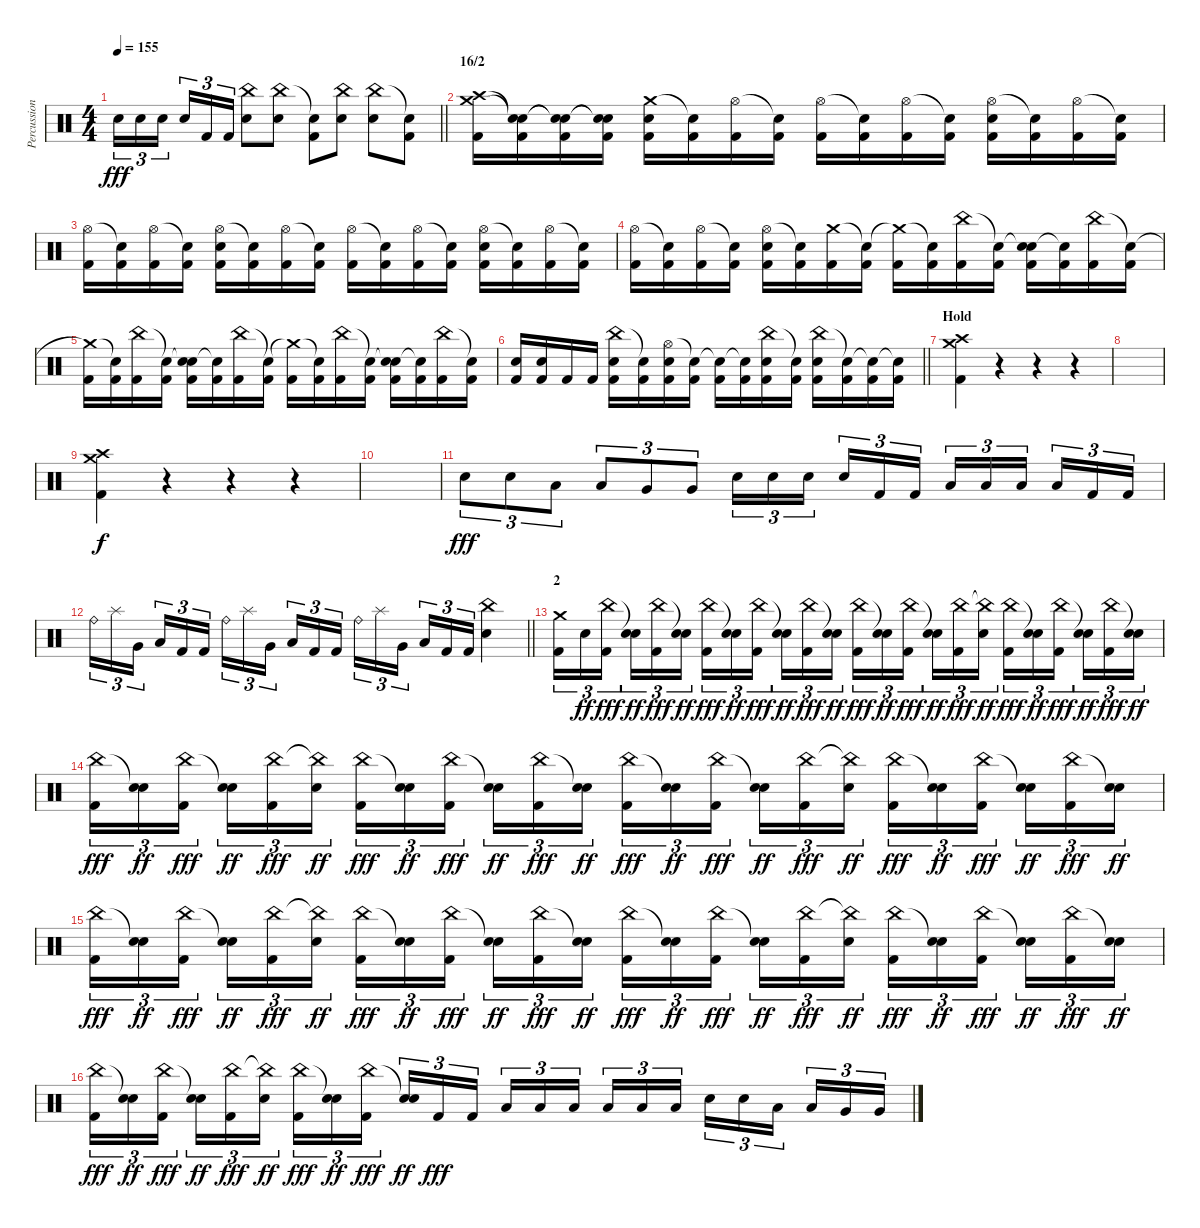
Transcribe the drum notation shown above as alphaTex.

\track ("Percussion" "Percussion") {instrument percussion}
\staff {score}
\articulation defaults
\ts (4 4)
\tempo 155
\clef neutral
\barLineRight lightlight
\ks c "Electric Snare (hit)".16{tu (3 2) dy fff} "Electric Snare (hit)".16{tu (3 2)} "Electric Snare (hit)".16{tu (3 2) beam splitsecondary} "Electric Snare (hit)".16{tu (3 2)} "Kick (hit) 2".16{tu (3 2)} "Kick (hit) 2".16{tu (3 2)}
("China (hit)" "Electric Snare (hit)").8 ("China (hit)" "Electric Snare (hit)").8 ("Snare (hit)"{t} "Kick (hit) 2").8 ("China (hit)" "Electric Snare (hit)").8 ("China (hit)" "Electric Snare (hit)").8 ("Snare (hit)"{t} "Kick (hit) 2").8 |
\section ("" "16/2")
("Crash medium (hit)" "Crash high (hit)" "Kick (hit) 2").16 ("Snare (hit)"{t} "Snare (hit)"{t} "Kick (hit) 2").16 ("Snare (hit)"{t} "Snare (hit)"{t} "Kick (hit) 2").16 ("Snare (hit)"{t} "Snare (hit)"{t} "Kick (hit) 2").16 ("Crash medium (hit)" "Electric Snare (hit)" "Kick (hit) 2").16 ("Snare (hit)"{t} "Kick (hit) 2").16 ("Hi-Hat (open)" "Kick (hit) 2").16 ("Snare (hit)"{t} "Kick (hit) 2").16 ("Hi-Hat (open)" "Kick (hit) 2").16 ("Snare (hit)"{t} "Kick (hit) 2").16 ("Hi-Hat (open)" "Kick (hit) 2").16 ("Snare (hit)"{t} "Kick (hit) 2").16 ("Hi-Hat (open)" "Electric Snare (hit)" "Kick (hit) 2").16 ("Snare (hit)"{t} "Kick (hit) 2").16 ("Hi-Hat (open)" "Kick (hit) 2").16 ("Snare (hit)"{t} "Kick (hit) 2").16 |
("Hi-Hat (open)" "Kick (hit) 2").16 ("Snare (hit)"{t} "Kick (hit) 2").16 ("Hi-Hat (open)" "Kick (hit) 2").16 ("Snare (hit)"{t} "Kick (hit) 2").16 ("Hi-Hat (open)" "Electric Snare (hit)" "Kick (hit) 2").16 ("Snare (hit)"{t} "Kick (hit) 2").16 ("Hi-Hat (open)" "Kick (hit) 2").16 ("Snare (hit)"{t} "Kick (hit) 2").16 ("Hi-Hat (open)" "Kick (hit) 2").16 ("Snare (hit)"{t} "Kick (hit) 2").16 ("Hi-Hat (open)" "Kick (hit) 2").16 ("Snare (hit)"{t} "Kick (hit) 2").16 ("Hi-Hat (open)" "Electric Snare (hit)" "Kick (hit) 2").16 ("Snare (hit)"{t} "Kick (hit) 2").16 ("Hi-Hat (open)" "Kick (hit) 2").16 ("Snare (hit)"{t} "Kick (hit) 2").16 |
("Hi-Hat (open)" "Kick (hit) 2").16 ("Snare (hit)"{t} "Kick (hit) 2").16 ("Hi-Hat (open)" "Kick (hit) 2").16 ("Snare (hit)"{t} "Kick (hit) 2").16 ("Hi-Hat (open)" "Electric Snare (hit)" "Kick (hit) 2").16 ("Snare (hit)"{t} "Kick (hit) 2").16 ("Crash medium (hit)" "Kick (hit) 2").16 ("Snare (hit)"{t} "Kick (hit) 2").16 ("Crash medium (hit)"{t} "Kick (hit) 2").16 ("Snare (hit)"{t} "Kick (hit) 2").16 ("China (hit)" "Kick (hit) 2").16 ("Snare (hit)"{t} "Kick (hit) 2").16 ("Snare (hit)"{t} "Electric Snare (hit)" "Kick (hit) 2").16 ("Snare (hit)"{t} "Kick (hit) 2").16 ("China (hit)" "Kick (hit) 2").16 ("Snare (hit)"{t} "Kick (hit) 2").16 |
("Crash medium (hit)"{t} "Kick (hit) 2").16 ("Snare (hit)"{t} "Kick (hit) 2").16 ("China (hit)" "Kick (hit) 2").16 ("Snare (hit)"{t} "Kick (hit) 2").16 ("Snare (hit)"{t} "Electric Snare (hit)" "Kick (hit) 2").16 ("Snare (hit)"{t} "Kick (hit) 2").16 ("China (hit)" "Kick (hit) 2").16 ("Snare (hit)"{t} "Kick (hit) 2").16 ("Crash medium (hit)"{t} "Kick (hit) 2").16 ("Snare (hit)"{t} "Kick (hit) 2").16 ("China (hit)" "Kick (hit) 2").16 ("Snare (hit)"{t} "Kick (hit) 2").16 ("Snare (hit)"{t} "Electric Snare (hit)" "Kick (hit) 2").16 ("Snare (hit)"{t} "Kick (hit) 2").16 ("China (hit)" "Kick (hit) 2").16 ("Snare (hit)"{t} "Kick (hit) 2").16 |
\barLineRight lightlight
("Electric Snare (hit)" "Kick (hit) 2").16 ("Electric Snare (hit)" "Kick (hit) 2").16 "Kick (hit) 2".16 "Kick (hit) 2".16 ("China (hit)" "Electric Snare (hit)" "Kick (hit) 2").16 ("Snare (hit)"{t} "Kick (hit) 2").16 ("Hi-Hat (open)" "Electric Snare (hit)" "Kick (hit) 2").16 ("Snare (hit)"{t} "Kick (hit) 2").16 ("Snare (hit)"{t} "Kick (hit) 2").16 ("Snare (hit)"{t} "Kick (hit) 2").16 ("China (hit)" "Electric Snare (hit)" "Kick (hit) 2").16 ("Snare (hit)"{t} "Kick (hit) 2").16 ("China (hit)" "Electric Snare (hit)" "Kick (hit) 2").16 ("Snare (hit)"{t} "Kick (hit) 2").16 ("Snare (hit)"{t} "Kick (hit) 2").16 ("Snare (hit)"{t} "Kick (hit) 2").16 |
\section ("" "Hold")
("Crash medium (hit)" "Crash high (hit)" "Kick (hit) 2").4 r.4 r.4 r.4 |
|
("Crash medium (hit)" "Crash high (hit)" "Kick (hit) 2").4{dy f} r.4 r.4 r.4 |
|
"Electric Snare (hit)".8{tu (3 2) dy fff} "Electric Snare (hit)".8{tu (3 2)} "Low Tom (hit)".8{tu (3 2)} "Low Tom (hit)".8{tu (3 2)} "Very Low Tom (hit)".8{tu (3 2)} "Very Low Tom (hit)".8{tu (3 2)} "Electric Snare (hit)".16{tu (3 2)} "Electric Snare (hit)".16{tu (3 2)} "Electric Snare (hit)".16{tu (3 2) beam splitsecondary} "Electric Snare (hit)".16{tu (3 2)} "Kick (hit) 2".16{tu (3 2)} "Kick (hit) 2".16{tu (3 2)} "Low Tom (hit)".16{tu (3 2)} "Low Tom (hit)".16{tu (3 2)} "Low Tom (hit)".16{tu (3 2) beam splitsecondary} "Low Tom (hit)".16{tu (3 2)} "Kick (hit) 2".16{tu (3 2)} "Kick (hit) 2".16{tu (3 2)} |
\barLineRight lightlight "Ride (bell)".16{tu (3 2)} "Splash (hit)".16{tu (3 2)} "Very Low Tom (hit)".16{tu (3 2) beam splitsecondary} "Low Tom (hit)".16{tu (3 2)} "Kick (hit) 2".16{tu (3 2)} "Kick (hit) 2".16{tu (3 2)} "Ride (bell)".16{tu (3 2)} "Splash (hit)".16{tu (3 2)} "Very Low Tom (hit)".16{tu (3 2) beam splitsecondary} "Low Tom (hit)".16{tu (3 2)} "Kick (hit) 2".16{tu (3 2)} "Kick (hit) 2".16{tu (3 2)} "Ride (bell)".16{tu (3 2)} "Splash (hit)".16{tu (3 2)} "Very Low Tom (hit)".16{tu (3 2) beam splitsecondary} "Low Tom (hit)".16{tu (3 2)} "Kick (hit) 2".16{tu (3 2)} "Kick (hit) 2".16{tu (3 2)}
("China (hit)" "Electric Snare (hit)").4 |
\section ("" "2")
("Crash medium (hit)" "Kick (hit) 2").16{tu (3 2)} "Electric Snare (hit)".16{tu (3 2) dy ff} ("China (hit)" "Kick (hit) 2").16{tu (3 2) dy fff beam splitsecondary} ("Snare (hit)"{t} "Electric Snare (hit)").16{tu (3 2) dy ff} ("China (hit)" "Kick (hit) 2").16{tu (3 2) dy fff} ("Snare (hit)"{t} "Electric Snare (hit)").16{tu (3 2) dy ff} ("China (hit)" "Kick (hit) 2").16{tu (3 2) dy fff} ("Snare (hit)"{t} "Electric Snare (hit)").16{tu (3 2) dy ff} ("China (hit)" "Kick (hit) 2").16{tu (3 2) dy fff beam splitsecondary} ("Snare (hit)"{t} "Electric Snare (hit)").16{tu (3 2) dy ff} ("China (hit)" "Kick (hit) 2").16{tu (3 2) dy fff} ("Snare (hit)"{t} "Electric Snare (hit)").16{tu (3 2) dy ff} ("China (hit)" "Kick (hit) 2").16{tu (3 2) dy fff} ("Snare (hit)"{t} "Electric Snare (hit)").16{tu (3 2) dy ff} ("China (hit)" "Kick (hit) 2").16{tu (3 2) dy fff beam splitsecondary} ("Snare (hit)"{t} "Electric Snare (hit)").16{tu (3 2) dy ff} ("China (hit)" "Kick (hit) 2").16{tu (3 2) dy fff} ("China (hit)"{t} "Electric Snare (hit)").16{tu (3 2) dy ff} ("China (hit)" "Kick (hit) 2").16{tu (3 2) dy fff} ("Snare (hit)"{t} "Electric Snare (hit)").16{tu (3 2) dy ff} ("China (hit)" "Kick (hit) 2").16{tu (3 2) dy fff beam splitsecondary} ("Snare (hit)"{t} "Electric Snare (hit)").16{tu (3 2) dy ff} ("China (hit)" "Kick (hit) 2").16{tu (3 2) dy fff} ("Snare (hit)"{t} "Electric Snare (hit)").16{tu (3 2) dy ff} |
("China (hit)" "Kick (hit) 2").16{tu (3 2) dy fff} ("Snare (hit)"{t} "Electric Snare (hit)").16{tu (3 2) dy ff} ("China (hit)" "Kick (hit) 2").16{tu (3 2) dy fff beam splitsecondary} ("Snare (hit)"{t} "Electric Snare (hit)").16{tu (3 2) dy ff} ("China (hit)" "Kick (hit) 2").16{tu (3 2) dy fff} ("China (hit)"{t} "Electric Snare (hit)").16{tu (3 2) dy ff} ("China (hit)" "Kick (hit) 2").16{tu (3 2) dy fff} ("Snare (hit)"{t} "Electric Snare (hit)").16{tu (3 2) dy ff} ("China (hit)" "Kick (hit) 2").16{tu (3 2) dy fff beam splitsecondary} ("Snare (hit)"{t} "Electric Snare (hit)").16{tu (3 2) dy ff} ("China (hit)" "Kick (hit) 2").16{tu (3 2) dy fff} ("Snare (hit)"{t} "Electric Snare (hit)").16{tu (3 2) dy ff} ("China (hit)" "Kick (hit) 2").16{tu (3 2) dy fff} ("Snare (hit)"{t} "Electric Snare (hit)").16{tu (3 2) dy ff} ("China (hit)" "Kick (hit) 2").16{tu (3 2) dy fff beam splitsecondary} ("Snare (hit)"{t} "Electric Snare (hit)").16{tu (3 2) dy ff} ("China (hit)" "Kick (hit) 2").16{tu (3 2) dy fff} ("China (hit)"{t} "Electric Snare (hit)").16{tu (3 2) dy ff} ("China (hit)" "Kick (hit) 2").16{tu (3 2) dy fff} ("Snare (hit)"{t} "Electric Snare (hit)").16{tu (3 2) dy ff} ("China (hit)" "Kick (hit) 2").16{tu (3 2) dy fff beam splitsecondary} ("Snare (hit)"{t} "Electric Snare (hit)").16{tu (3 2) dy ff} ("China (hit)" "Kick (hit) 2").16{tu (3 2) dy fff} ("Snare (hit)"{t} "Electric Snare (hit)").16{tu (3 2) dy ff} |
("China (hit)" "Kick (hit) 2").16{tu (3 2) dy fff} ("Snare (hit)"{t} "Electric Snare (hit)").16{tu (3 2) dy ff} ("China (hit)" "Kick (hit) 2").16{tu (3 2) dy fff beam splitsecondary} ("Snare (hit)"{t} "Electric Snare (hit)").16{tu (3 2) dy ff} ("China (hit)" "Kick (hit) 2").16{tu (3 2) dy fff} ("China (hit)"{t} "Electric Snare (hit)").16{tu (3 2) dy ff} ("China (hit)" "Kick (hit) 2").16{tu (3 2) dy fff} ("Snare (hit)"{t} "Electric Snare (hit)").16{tu (3 2) dy ff} ("China (hit)" "Kick (hit) 2").16{tu (3 2) dy fff beam splitsecondary} ("Snare (hit)"{t} "Electric Snare (hit)").16{tu (3 2) dy ff} ("China (hit)" "Kick (hit) 2").16{tu (3 2) dy fff} ("Snare (hit)"{t} "Electric Snare (hit)").16{tu (3 2) dy ff} ("China (hit)" "Kick (hit) 2").16{tu (3 2) dy fff} ("Snare (hit)"{t} "Electric Snare (hit)").16{tu (3 2) dy ff} ("China (hit)" "Kick (hit) 2").16{tu (3 2) dy fff beam splitsecondary} ("Snare (hit)"{t} "Electric Snare (hit)").16{tu (3 2) dy ff} ("China (hit)" "Kick (hit) 2").16{tu (3 2) dy fff} ("China (hit)"{t} "Electric Snare (hit)").16{tu (3 2) dy ff} ("China (hit)" "Kick (hit) 2").16{tu (3 2) dy fff} ("Snare (hit)"{t} "Electric Snare (hit)").16{tu (3 2) dy ff} ("China (hit)" "Kick (hit) 2").16{tu (3 2) dy fff beam splitsecondary} ("Snare (hit)"{t} "Electric Snare (hit)").16{tu (3 2) dy ff} ("China (hit)" "Kick (hit) 2").16{tu (3 2) dy fff} ("Snare (hit)"{t} "Electric Snare (hit)").16{tu (3 2) dy ff} |
("China (hit)" "Kick (hit) 2").16{tu (3 2) dy fff} ("Snare (hit)"{t} "Electric Snare (hit)").16{tu (3 2) dy ff} ("China (hit)" "Kick (hit) 2").16{tu (3 2) dy fff beam splitsecondary} ("Snare (hit)"{t} "Electric Snare (hit)").16{tu (3 2) dy ff} ("China (hit)" "Kick (hit) 2").16{tu (3 2) dy fff} ("China (hit)"{t} "Electric Snare (hit)").16{tu (3 2) dy ff} ("China (hit)" "Kick (hit) 2").16{tu (3 2) dy fff} ("Snare (hit)"{t} "Electric Snare (hit)").16{tu (3 2) dy ff} ("China (hit)" "Kick (hit) 2").16{tu (3 2) dy fff beam splitsecondary} ("Snare (hit)"{t} "Electric Snare (hit)").16{tu (3 2) dy ff} "Kick (hit) 2".16{tu (3 2) dy fff} "Kick (hit) 2".16{tu (3 2)} "Low Tom (hit)".16{tu (3 2)} "Low Tom (hit)".16{tu (3 2)} "Low Tom (hit)".16{tu (3 2) beam splitsecondary} "Low Tom (hit)".16{tu (3 2)} "Low Tom (hit)".16{tu (3 2)} "Low Tom (hit)".16{tu (3 2)} "Electric Snare (hit)".16{tu (3 2)} "Electric Snare (hit)".16{tu (3 2)} "Low Tom (hit)".16{tu (3 2) beam splitsecondary} "Low Tom (hit)".16{tu (3 2)} "Very Low Tom (hit)".16{tu (3 2)} "Very Low Tom (hit)".16{tu (3 2)}
